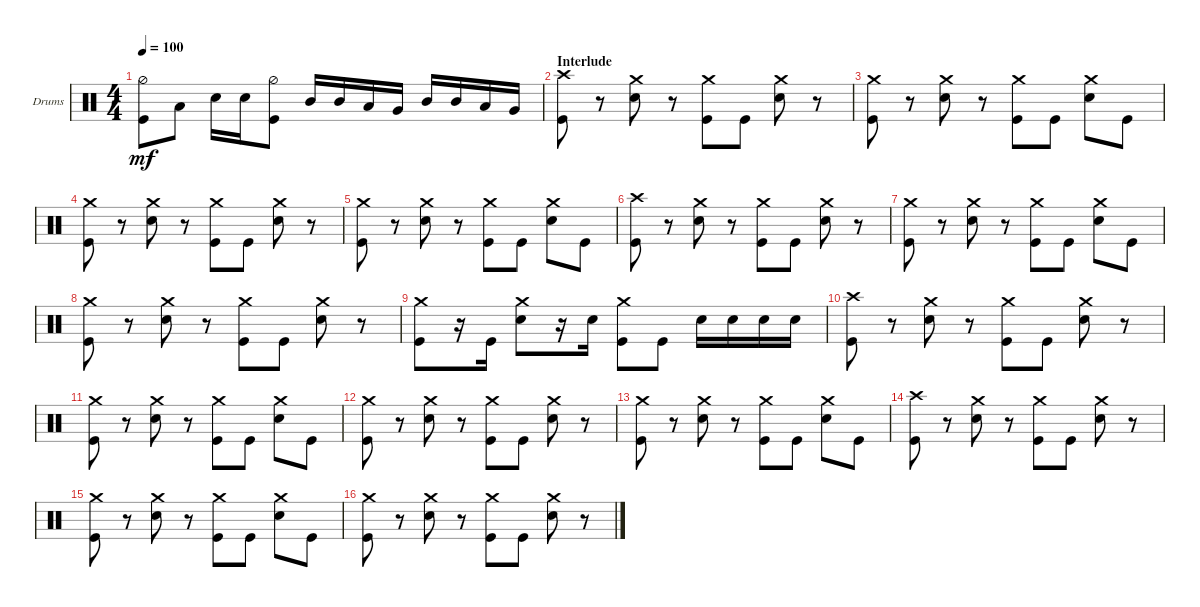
\defaultSystemsLayout 4
\bracketExtendMode groupsimilarinstruments
\firstSystemTrackNameOrientation horizontal
\otherSystemsTrackNameOrientation horizontal
\track ("Drumkit" "Drums") {instrument percussion}
\staff {score}
\articulation defaults
\ts (4 4)
\tempo 100
\clef neutral
\ks c
("Kick (hit)" "Hi-Hat (half)").8{dy mf} "Low Tom (hit)".8 "Snare (hit) 2".16 "Snare (hit) 2".16 ("Kick (hit)" "Hi-Hat (half)").8 "Mid Tom (hit)".16 "Mid Tom (hit)".16 "Low Tom (hit)".16 "Very Low Tom (hit)".16 "Mid Tom (hit)".16 "Mid Tom (hit)".16 "Low Tom (hit)".16 "Very Low Tom (hit)".16 |
\section ("" "Interlude")
("Kick (hit)" "Crash high (hit)").8 r.8 ("Snare (hit) 2" "Crash medium (hit)").8 r.8 ("Crash medium (hit)" "Kick (hit)").8 "Kick (hit)".8 ("Snare (hit) 2" "Crash medium (hit)").8 r.8 |
("Kick (hit)" "Crash medium (hit)").8 r.8 ("Snare (hit) 2" "Crash medium (hit)").8 r.8 ("Kick (hit)" "Crash medium (hit)").8 "Kick (hit)".8 ("Snare (hit) 2" "Crash medium (hit)").8 "Kick (hit)".8 |
("Kick (hit)" "Crash medium (hit)").8 r.8 ("Snare (hit) 2" "Crash medium (hit)").8 r.8 ("Kick (hit)" "Crash medium (hit)").8 "Kick (hit)".8 ("Snare (hit) 2" "Crash medium (hit)").8 r.8 |
("Kick (hit)" "Crash medium (hit)").8 r.8 ("Snare (hit) 2" "Crash medium (hit)").8 r.8 ("Kick (hit)" "Crash medium (hit)").8 "Kick (hit)".8 ("Snare (hit) 2" "Crash medium (hit)").8 "Kick (hit)".8 |
("Kick (hit)" "Crash high (hit)").8 r.8 ("Snare (hit) 2" "Crash medium (hit)").8 r.8 ("Crash medium (hit)" "Kick (hit)").8 "Kick (hit)".8 ("Snare (hit) 2" "Crash medium (hit)").8 r.8 |
("Kick (hit)" "Crash medium (hit)").8 r.8 ("Snare (hit) 2" "Crash medium (hit)").8 r.8 ("Kick (hit)" "Crash medium (hit)").8 "Kick (hit)".8 ("Snare (hit) 2" "Crash medium (hit)").8 "Kick (hit)".8 |
("Kick (hit)" "Crash medium (hit)").8 r.8 ("Snare (hit) 2" "Crash medium (hit)").8 r.8 ("Kick (hit)" "Crash medium (hit)").8 "Kick (hit)".8 ("Snare (hit) 2" "Crash medium (hit)").8 r.8 |
("Kick (hit)" "Crash medium (hit)").8 r.16 "Kick (hit)".16 ("Snare (hit) 2" "Crash medium (hit)").8 r.16 "Snare (hit) 2".16 ("Kick (hit)" "Crash medium (hit)").8 "Kick (hit)".8 "Snare (hit) 2".16 "Snare (hit) 2".16 "Snare (hit) 2".16 "Snare (hit) 2".16 |
("Kick (hit)" "Crash high (hit)").8 r.8 ("Snare (hit) 2" "Crash medium (hit)").8 r.8 ("Crash medium (hit)" "Kick (hit)").8 "Kick (hit)".8 ("Snare (hit) 2" "Crash medium (hit)").8 r.8 |
("Kick (hit)" "Crash medium (hit)").8 r.8 ("Snare (hit) 2" "Crash medium (hit)").8 r.8 ("Kick (hit)" "Crash medium (hit)").8 "Kick (hit)".8 ("Snare (hit) 2" "Crash medium (hit)").8 "Kick (hit)".8 |
("Kick (hit)" "Crash medium (hit)").8 r.8 ("Snare (hit) 2" "Crash medium (hit)").8 r.8 ("Kick (hit)" "Crash medium (hit)").8 "Kick (hit)".8 ("Snare (hit) 2" "Crash medium (hit)").8 r.8 |
("Kick (hit)" "Crash medium (hit)").8 r.8 ("Snare (hit) 2" "Crash medium (hit)").8 r.8 ("Kick (hit)" "Crash medium (hit)").8 "Kick (hit)".8 ("Snare (hit) 2" "Crash medium (hit)").8 "Kick (hit)".8 |
("Kick (hit)" "Crash high (hit)").8 r.8 ("Snare (hit) 2" "Crash medium (hit)").8 r.8 ("Crash medium (hit)" "Kick (hit)").8 "Kick (hit)".8 ("Snare (hit) 2" "Crash medium (hit)").8 r.8 |
("Kick (hit)" "Crash medium (hit)").8 r.8 ("Snare (hit) 2" "Crash medium (hit)").8 r.8 ("Kick (hit)" "Crash medium (hit)").8 "Kick (hit)".8 ("Snare (hit) 2" "Crash medium (hit)").8 "Kick (hit)".8 |
("Kick (hit)" "Crash medium (hit)").8 r.8 ("Snare (hit) 2" "Crash medium (hit)").8 r.8 ("Kick (hit)" "Crash medium (hit)").8 "Kick (hit)".8 ("Snare (hit) 2" "Crash medium (hit)").8 r.8
